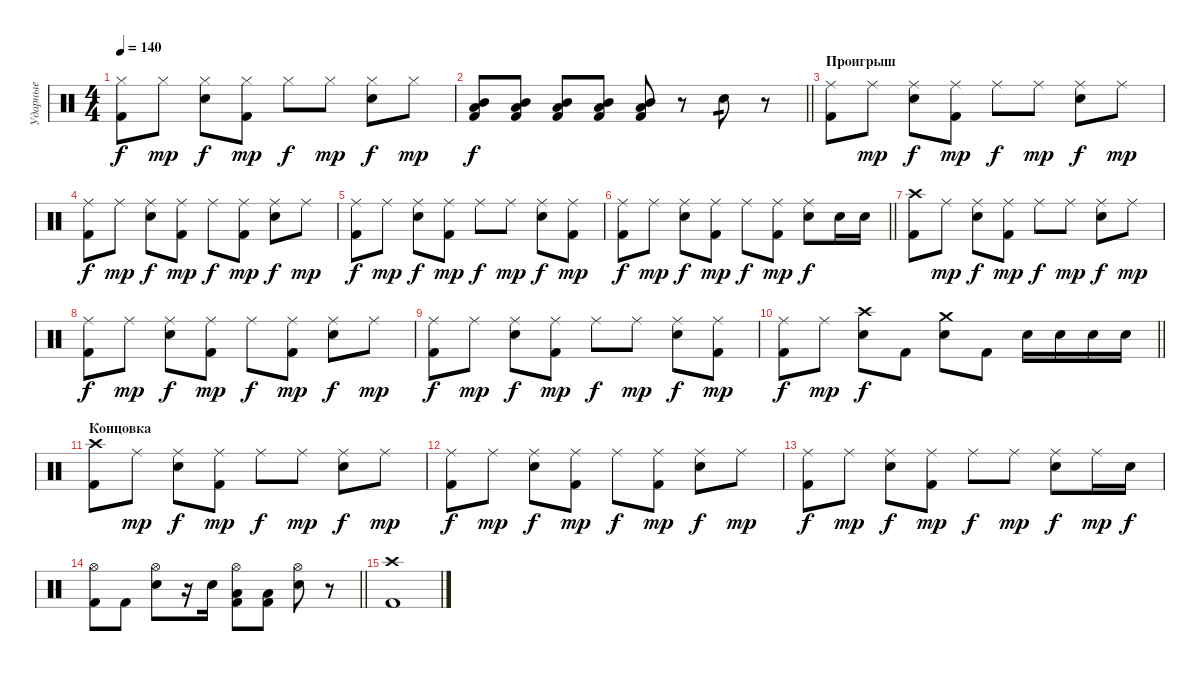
\track ("Ударные" "Ударные") {instrument percussion}
\staff {score}
\articulation defaults
\ts (4 4)
\tempo 140
\clef neutral
\ks c
("Hi-Hat (closed)" "Kick (hit) 2").8{dy f} "Hi-Hat (closed)".8{dy mp} ("Hi-Hat (closed)" "Snare (hit) 2").8{dy f} ("Hi-Hat (closed)" "Kick (hit) 2").8{dy mp} "Hi-Hat (closed)".8{dy f} "Hi-Hat (closed)".8{dy mp} ("Hi-Hat (closed)" "Snare (hit) 2").8{dy f} "Hi-Hat (closed)".8{dy mp} |
\barLineRight lightlight
("Mid Tom (hit)" "Low Tom (hit)" "Kick (hit) 2").8{dy f} ("Mid Tom (hit)" "Low Tom (hit)" "Kick (hit) 2").8 ("Mid Tom (hit)" "Low Tom (hit)" "Kick (hit) 2").8 ("Mid Tom (hit)" "Low Tom (hit)" "Kick (hit) 2").8 ("Mid Tom (hit)" "Low Tom (hit)" "Kick (hit) 2").8 r.8 "Snare (hit) 2".8{tp 1} r.8 |
\section ("" "Проигрыш")
("Ride (middle)" "Kick (hit) 2").8 "Ride (middle)".8{dy mp} ("Ride (middle)" "Snare (hit) 2").8{dy f} ("Ride (middle)" "Kick (hit) 2").8{dy mp} "Ride (middle)".8{dy f} "Ride (middle)".8{dy mp} ("Ride (middle)" "Snare (hit) 2").8{dy f} "Ride (middle)".8{dy mp} |
("Ride (middle)" "Kick (hit) 2").8{dy f} "Ride (middle)".8{dy mp} ("Ride (middle)" "Snare (hit) 2").8{dy f} ("Ride (middle)" "Kick (hit) 2").8{dy mp} "Ride (middle)".8{dy f} ("Ride (middle)" "Kick (hit) 2").8{dy mp} ("Ride (middle)" "Snare (hit) 2").8{dy f} "Ride (middle)".8{dy mp} |
("Ride (middle)" "Kick (hit) 2").8{dy f} "Ride (middle)".8{dy mp} ("Ride (middle)" "Snare (hit) 2").8{dy f} ("Ride (middle)" "Kick (hit) 2").8{dy mp} "Ride (middle)".8{dy f} "Ride (middle)".8{dy mp} ("Ride (middle)" "Snare (hit) 2").8{dy f} ("Ride (middle)" "Kick (hit) 2").8{dy mp} |
\barLineRight lightlight
("Ride (middle)" "Kick (hit) 2").8{dy f} "Ride (middle)".8{dy mp} ("Ride (middle)" "Snare (hit) 2").8{dy f} ("Ride (middle)" "Kick (hit) 2").8{dy mp} "Ride (middle)".8{dy f} ("Ride (middle)" "Kick (hit) 2").8{dy mp} ("Ride (middle)" "Snare (hit) 2").8{dy f} "Snare (hit) 2".16 "Snare (hit) 2".16 |
("Crash high (hit)" "Kick (hit) 2").8 "Ride (middle)".8{dy mp} ("Ride (middle)" "Snare (hit) 2").8{dy f} ("Ride (middle)" "Kick (hit) 2").8{dy mp} "Ride (middle)".8{dy f} "Ride (middle)".8{dy mp} ("Ride (middle)" "Snare (hit) 2").8{dy f} "Ride (middle)".8{dy mp} |
("Ride (middle)" "Kick (hit) 2").8{dy f} "Ride (middle)".8{dy mp} ("Ride (middle)" "Snare (hit) 2").8{dy f} ("Ride (middle)" "Kick (hit) 2").8{dy mp} "Ride (middle)".8{dy f} ("Ride (middle)" "Kick (hit) 2").8{dy mp} ("Ride (middle)" "Snare (hit) 2").8{dy f} "Ride (middle)".8{dy mp} |
("Ride (middle)" "Kick (hit) 2").8{dy f} "Ride (middle)".8{dy mp} ("Ride (middle)" "Snare (hit) 2").8{dy f} ("Ride (middle)" "Kick (hit) 2").8{dy mp} "Ride (middle)".8{dy f} "Ride (middle)".8{dy mp} ("Ride (middle)" "Snare (hit) 2").8{dy f} ("Ride (middle)" "Kick (hit) 2").8{dy mp} |
\barLineRight lightlight
("Ride (middle)" "Kick (hit) 2").8{dy f} "Ride (middle)".8{dy mp} ("Crash high (hit)" "Snare (hit) 2").8{dy f} "Kick (hit) 2".8 ("Crash medium (hit)" "Snare (hit) 2").8 "Kick (hit) 2".8 "Snare (hit) 2".16 "Snare (hit) 2".16 "Snare (hit) 2".16 "Snare (hit) 2".16 |
\section ("" "Концовка")
("Crash high (hit)" "Kick (hit) 2").8 "Ride (middle)".8{dy mp} ("Ride (middle)" "Snare (hit) 2").8{dy f} ("Ride (middle)" "Kick (hit) 2").8{dy mp} "Ride (middle)".8{dy f} "Ride (middle)".8{dy mp} ("Ride (middle)" "Snare (hit) 2").8{dy f} "Ride (middle)".8{dy mp} |
("Ride (middle)" "Kick (hit) 2").8{dy f} "Ride (middle)".8{dy mp} ("Ride (middle)" "Snare (hit) 2").8{dy f} ("Ride (middle)" "Kick (hit) 2").8{dy mp} "Ride (middle)".8{dy f} ("Ride (middle)" "Kick (hit) 2").8{dy mp} ("Ride (middle)" "Snare (hit) 2").8{dy f} "Ride (middle)".8{dy mp} |
("Ride (middle)" "Kick (hit) 2").8{dy f} "Ride (middle)".8{dy mp} ("Ride (middle)" "Snare (hit) 2").8{dy f} ("Ride (middle)" "Kick (hit) 2").8{dy mp} "Ride (middle)".8{dy f} "Ride (middle)".8{dy mp} ("Ride (middle)" "Snare (hit) 2").8{dy f} "Ride (middle)".16{dy mp} "Snare (hit) 2".16{dy f} |
\barLineRight lightlight
("Hi-Hat (open)" "Kick (hit) 2").8 "Kick (hit) 2".8 ("Hi-Hat (open)" "Snare (hit) 2").8 r.16 "Snare (hit) 2".16 ("Hi-Hat (open)" "Low Tom (hit)" "Kick (hit) 2").8 ("Low Tom (hit)" "Kick (hit) 2").8 ("Hi-Hat (open)" "Snare (hit) 2").8 r.8 |
("Crash high (hit)" "Kick (hit) 2").1
